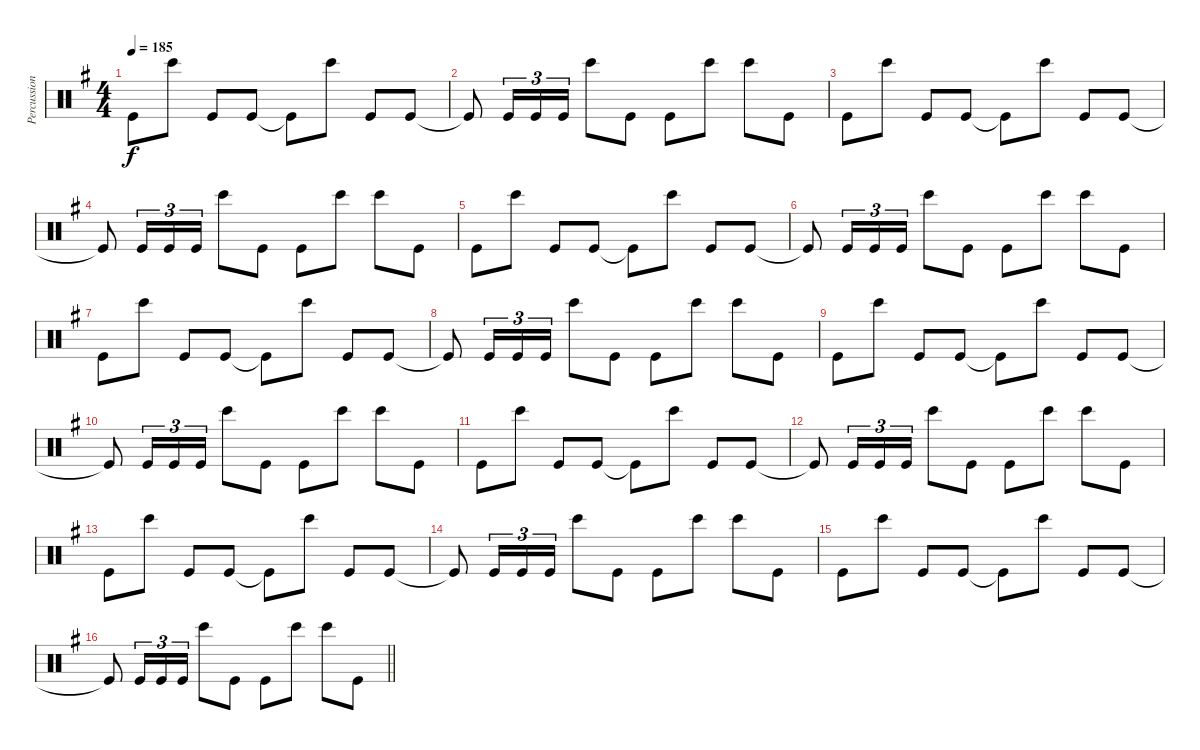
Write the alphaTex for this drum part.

\track ("Percussion sample" "Percussion") {instrument percussion}
\staff {score}
\articulation defaults
\ts (4 4)
\tempo 185
\clef neutral
\ks eminor "Kick (hit)".8{dy f} "Bongo High (hit)".8 "Kick (hit)".8 "Kick (hit)".8 "Kick (hit)"{t}.8 "Bongo High (hit)".8 "Kick (hit)".8 "Kick (hit)".8
|
"Kick (hit)"{t}.8 "Kick (hit)".16{tu (3 2)} "Kick (hit)".16{tu (3 2)} "Kick (hit)".16{tu (3 2)} "Bongo High (hit)".8 "Kick (hit)".8 "Kick (hit)".8 "Bongo High (hit)".8 "Bongo High (hit)".8 "Kick (hit)".8 |
"Kick (hit)".8 "Bongo High (hit)".8 "Kick (hit)".8 "Kick (hit)".8 "Kick (hit)"{t}.8 "Bongo High (hit)".8 "Kick (hit)".8 "Kick (hit)".8 |
"Kick (hit)"{t}.8 "Kick (hit)".16{tu (3 2)} "Kick (hit)".16{tu (3 2)} "Kick (hit)".16{tu (3 2)} "Bongo High (hit)".8 "Kick (hit)".8 "Kick (hit)".8 "Bongo High (hit)".8 "Bongo High (hit)".8 "Kick (hit)".8 |
"Kick (hit)".8 "Bongo High (hit)".8 "Kick (hit)".8 "Kick (hit)".8 "Kick (hit)"{t}.8 "Bongo High (hit)".8 "Kick (hit)".8 "Kick (hit)".8 |
"Kick (hit)"{t}.8 "Kick (hit)".16{tu (3 2)} "Kick (hit)".16{tu (3 2)} "Kick (hit)".16{tu (3 2)} "Bongo High (hit)".8 "Kick (hit)".8 "Kick (hit)".8 "Bongo High (hit)".8 "Bongo High (hit)".8 "Kick (hit)".8 |
"Kick (hit)".8 "Bongo High (hit)".8 "Kick (hit)".8 "Kick (hit)".8 "Kick (hit)"{t}.8 "Bongo High (hit)".8 "Kick (hit)".8 "Kick (hit)".8 |
"Kick (hit)"{t}.8 "Kick (hit)".16{tu (3 2)} "Kick (hit)".16{tu (3 2)} "Kick (hit)".16{tu (3 2)} "Bongo High (hit)".8 "Kick (hit)".8 "Kick (hit)".8 "Bongo High (hit)".8 "Bongo High (hit)".8 "Kick (hit)".8 |
"Kick (hit)".8 "Bongo High (hit)".8 "Kick (hit)".8 "Kick (hit)".8 "Kick (hit)"{t}.8 "Bongo High (hit)".8 "Kick (hit)".8 "Kick (hit)".8 |
"Kick (hit)"{t}.8 "Kick (hit)".16{tu (3 2)} "Kick (hit)".16{tu (3 2)} "Kick (hit)".16{tu (3 2)} "Bongo High (hit)".8 "Kick (hit)".8 "Kick (hit)".8 "Bongo High (hit)".8 "Bongo High (hit)".8 "Kick (hit)".8 |
"Kick (hit)".8 "Bongo High (hit)".8 "Kick (hit)".8 "Kick (hit)".8 "Kick (hit)"{t}.8 "Bongo High (hit)".8 "Kick (hit)".8 "Kick (hit)".8 |
"Kick (hit)"{t}.8 "Kick (hit)".16{tu (3 2)} "Kick (hit)".16{tu (3 2)} "Kick (hit)".16{tu (3 2)} "Bongo High (hit)".8 "Kick (hit)".8 "Kick (hit)".8 "Bongo High (hit)".8 "Bongo High (hit)".8 "Kick (hit)".8 |
"Kick (hit)".8 "Bongo High (hit)".8 "Kick (hit)".8 "Kick (hit)".8 "Kick (hit)"{t}.8 "Bongo High (hit)".8 "Kick (hit)".8 "Kick (hit)".8 |
"Kick (hit)"{t}.8 "Kick (hit)".16{tu (3 2)} "Kick (hit)".16{tu (3 2)} "Kick (hit)".16{tu (3 2)} "Bongo High (hit)".8 "Kick (hit)".8 "Kick (hit)".8 "Bongo High (hit)".8 "Bongo High (hit)".8 "Kick (hit)".8 |
"Kick (hit)".8 "Bongo High (hit)".8 "Kick (hit)".8 "Kick (hit)".8 "Kick (hit)"{t}.8 "Bongo High (hit)".8 "Kick (hit)".8 "Kick (hit)".8 |
\barLineRight lightlight "Kick (hit)"{t}.8 "Kick (hit)".16{tu (3 2)} "Kick (hit)".16{tu (3 2)} "Kick (hit)".16{tu (3 2)} "Bongo High (hit)".8 "Kick (hit)".8 "Kick (hit)".8 "Bongo High (hit)".8 "Bongo High (hit)".8 "Kick (hit)".8
